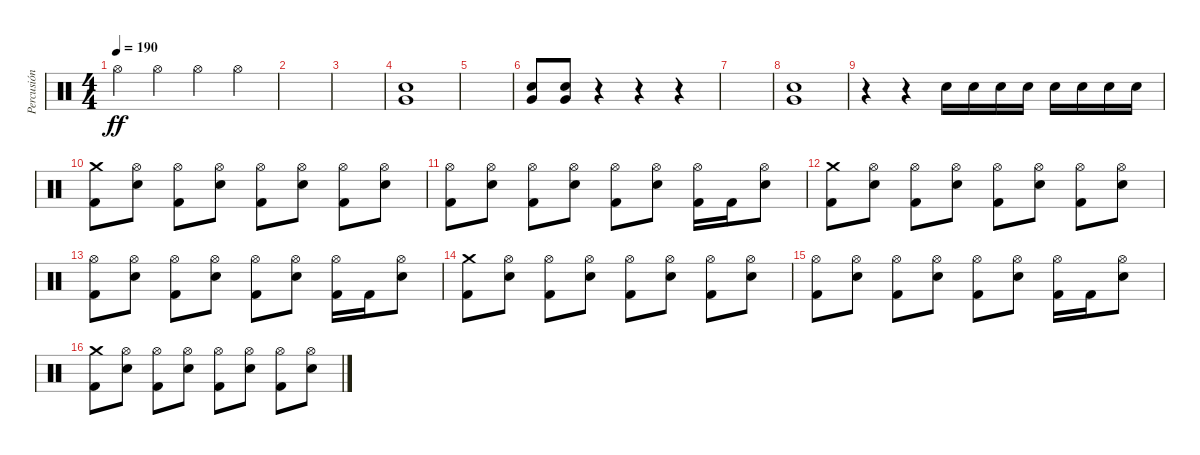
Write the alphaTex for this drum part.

\track ("Percusión" "Percusión") {instrument percussion}
\staff {score}
\articulation defaults
\ts (4 4)
\tempo 190
\clef neutral
\ks c "Hi-Hat (open)".4{dy ff} "Hi-Hat (open)".4 "Hi-Hat (open)".4 "Hi-Hat (open)".4
|
|
|
("Snare (hit) 2" "Very Low Tom (hit)").1 |
|
("Snare (hit) 2" "Very Low Tom (hit)").8 ("Snare (hit) 2" "Very Low Tom (hit)").8 r.4 r.4 r.4 |
|
("Snare (hit) 2" "Very Low Tom (hit)").1 |
r.4 r.4 "Snare (hit) 2".16 "Snare (hit) 2".16 "Snare (hit) 2".16 "Snare (hit) 2".16 "Snare (hit) 2".16 "Snare (hit) 2".16 "Snare (hit) 2".16 "Snare (hit) 2".16 |
("Crash medium (hit)" "Kick (hit) 2").8 ("Hi-Hat (open)" "Snare (hit) 2").8 ("Hi-Hat (open)" "Kick (hit) 2").8 ("Hi-Hat (open)" "Snare (hit) 2").8 ("Hi-Hat (open)" "Kick (hit) 2").8 ("Hi-Hat (open)" "Snare (hit) 2").8 ("Hi-Hat (open)" "Kick (hit) 2").8 ("Hi-Hat (open)" "Snare (hit) 2").8 |
("Hi-Hat (open)" "Kick (hit) 2").8 ("Hi-Hat (open)" "Snare (hit) 2").8 ("Hi-Hat (open)" "Kick (hit) 2").8 ("Hi-Hat (open)" "Snare (hit) 2").8 ("Hi-Hat (open)" "Kick (hit) 2").8 ("Hi-Hat (open)" "Snare (hit) 2").8 ("Hi-Hat (open)" "Kick (hit) 2").16 "Kick (hit) 2".16 ("Hi-Hat (open)" "Snare (hit) 2").8 |
("Crash medium (hit)" "Kick (hit) 2").8 ("Hi-Hat (open)" "Snare (hit) 2").8 ("Hi-Hat (open)" "Kick (hit) 2").8 ("Hi-Hat (open)" "Snare (hit) 2").8 ("Hi-Hat (open)" "Kick (hit) 2").8 ("Hi-Hat (open)" "Snare (hit) 2").8 ("Hi-Hat (open)" "Kick (hit) 2").8 ("Hi-Hat (open)" "Snare (hit) 2").8 |
("Hi-Hat (open)" "Kick (hit) 2").8 ("Hi-Hat (open)" "Snare (hit) 2").8 ("Hi-Hat (open)" "Kick (hit) 2").8 ("Hi-Hat (open)" "Snare (hit) 2").8 ("Hi-Hat (open)" "Kick (hit) 2").8 ("Hi-Hat (open)" "Snare (hit) 2").8 ("Hi-Hat (open)" "Kick (hit) 2").16 "Kick (hit) 2".16 ("Hi-Hat (open)" "Snare (hit) 2").8 |
("Crash medium (hit)" "Kick (hit) 2").8 ("Hi-Hat (open)" "Snare (hit) 2").8 ("Hi-Hat (open)" "Kick (hit) 2").8 ("Hi-Hat (open)" "Snare (hit) 2").8 ("Hi-Hat (open)" "Kick (hit) 2").8 ("Hi-Hat (open)" "Snare (hit) 2").8 ("Hi-Hat (open)" "Kick (hit) 2").8 ("Hi-Hat (open)" "Snare (hit) 2").8 |
("Hi-Hat (open)" "Kick (hit) 2").8 ("Hi-Hat (open)" "Snare (hit) 2").8 ("Hi-Hat (open)" "Kick (hit) 2").8 ("Hi-Hat (open)" "Snare (hit) 2").8 ("Hi-Hat (open)" "Kick (hit) 2").8 ("Hi-Hat (open)" "Snare (hit) 2").8 ("Hi-Hat (open)" "Kick (hit) 2").16 "Kick (hit) 2".16 ("Hi-Hat (open)" "Snare (hit) 2").8 |
("Crash medium (hit)" "Kick (hit) 2").8 ("Hi-Hat (open)" "Snare (hit) 2").8 ("Hi-Hat (open)" "Kick (hit) 2").8 ("Hi-Hat (open)" "Snare (hit) 2").8 ("Hi-Hat (open)" "Kick (hit) 2").8 ("Hi-Hat (open)" "Snare (hit) 2").8 ("Hi-Hat (open)" "Kick (hit) 2").8 ("Hi-Hat (open)" "Snare (hit) 2").8
